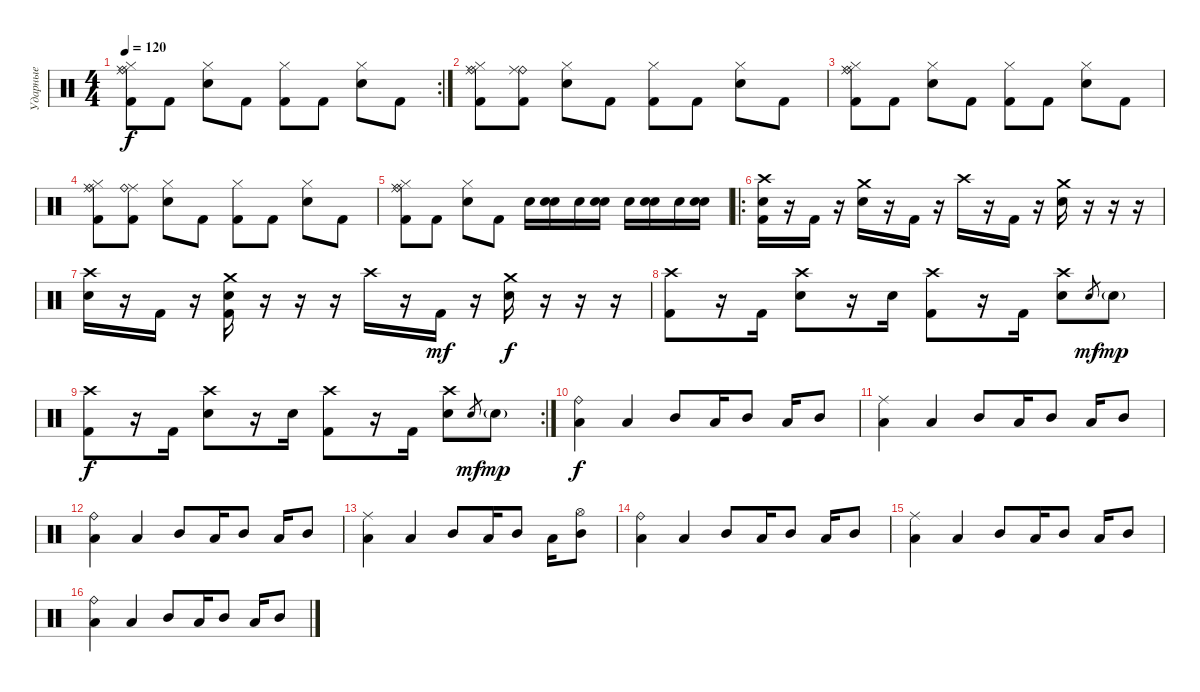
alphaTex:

\track ("Ударные" "Ударные") {instrument percussion}
\staff {score}
\articulation defaults
\rc 2
\ts (4 4)
\tempo 120
\clef neutral
\ks c
("Hi-Hat (closed)" "Ride (middle)" "Ride (bell)" "Kick (hit) 2").8{dy f} "Kick (hit) 2".8 ("Hi-Hat (closed)" "Electric Snare (hit)").8 "Kick (hit) 2".8 ("Hi-Hat (closed)" "Kick (hit) 2").8 "Kick (hit) 2".8 ("Hi-Hat (closed)" "Electric Snare (hit)").8 "Kick (hit) 2".8 |
("Hi-Hat (closed)" "Ride (middle)" "Ride (bell)" "Kick (hit) 2").8 ("Ride (bell)" "Ride (middle)" "Kick (hit) 2").8 ("Hi-Hat (closed)" "Electric Snare (hit)").8 "Kick (hit) 2".8 ("Hi-Hat (closed)" "Kick (hit) 2").8 "Kick (hit) 2".8 ("Hi-Hat (closed)" "Electric Snare (hit)").8 "Kick (hit) 2".8 |
("Hi-Hat (closed)" "Ride (middle)" "Ride (bell)" "Kick (hit) 2").8 "Kick (hit) 2".8 ("Hi-Hat (closed)" "Electric Snare (hit)").8 "Kick (hit) 2".8 ("Hi-Hat (closed)" "Kick (hit) 2").8 "Kick (hit) 2".8 ("Hi-Hat (closed)" "Electric Snare (hit)").8 "Kick (hit) 2".8 |
("Hi-Hat (closed)" "Ride (middle)" "Ride (bell)" "Kick (hit) 2").8 ("Ride (middle)" "Ride (bell)" "Kick (hit) 2").8 ("Hi-Hat (closed)" "Electric Snare (hit)").8 "Kick (hit) 2".8 ("Hi-Hat (closed)" "Kick (hit) 2").8 "Kick (hit) 2".8 ("Hi-Hat (closed)" "Electric Snare (hit)").8 "Kick (hit) 2".8 |
("Hi-Hat (closed)" "Ride (middle)" "Ride (bell)" "Kick (hit) 2").8 "Kick (hit) 2".8 ("Hi-Hat (closed)" "Electric Snare (hit)").8 "Kick (hit) 2".8 "Snare (hit) 2".16{volume 13} ("Electric Snare (hit)" "Snare (hit) 2").16 "Snare (hit) 2".16 ("Electric Snare (hit)" "Snare (hit) 2").16 "Snare (hit) 2".16 ("Electric Snare (hit)" "Snare (hit) 2").16 "Snare (hit) 2".16 ("Electric Snare (hit)" "Snare (hit) 2").16 |
\ro
("Crash high (hit)" "Electric Snare (hit)" "Kick (hit) 2").16{volume 13} r.16 "Kick (hit) 2".16 r.16 ("Crash medium (hit)" "Electric Snare (hit)").16 r.16 "Kick (hit) 2".16 r.16 "Crash high (hit)".16 r.16 "Kick (hit) 2".16 r.16 ("Crash medium (hit)" "Snare (hit) 2").16 r.16 r.16 r.16 |
("Crash high (hit)" "Electric Snare (hit)").16 r.16 "Kick (hit) 2".16 r.16 ("Crash medium (hit)" "Electric Snare (hit)" "Kick (hit) 2").16 r.16 r.16 r.16 "Crash high (hit)".16 r.16 "Kick (hit) 2".16{dy mf} r.16 ("Crash medium (hit)" "Snare (hit) 2").16{dy f} r.16 r.16 r.16 |
("Crash high (hit)" "Kick (hit) 2").8 r.16 "Kick (hit) 2".16 ("Crash high (hit)" "Electric Snare (hit)").8 r.16 "Electric Snare (hit)".16 ("Crash high (hit)" "Kick (hit) 2").8 r.16 "Kick (hit) 2".16 ("Crash high (hit)" "Electric Snare (hit)").8 "Electric Snare (hit)".8{gr dy mf} "Electric Snare (hit)"{g}.8{dy mp} |
\rc 2
("Crash high (hit)" "Kick (hit) 2").8{dy f} r.16 "Kick (hit) 2".16 ("Crash high (hit)" "Electric Snare (hit)").8 r.16 "Electric Snare (hit)".16 ("Crash high (hit)" "Kick (hit) 2").8 r.16 "Kick (hit) 2".16 ("Crash high (hit)" "Electric Snare (hit)").8 "Electric Snare (hit)".8{gr dy mf} "Electric Snare (hit)"{g}.8{dy mp} |
("Ride (bell)" "Low Tom (hit)").4{dy f} "Low Tom (hit)".4 "Mid Tom (hit)".8 "Low Tom (hit)".16 "Mid Tom (hit)".8 "Low Tom (hit)".16 "Mid Tom (hit)".8 |
("Ride (middle)" "Low Tom (hit)").4 "Low Tom (hit)".4 "Mid Tom (hit)".8 "Low Tom (hit)".16 "Mid Tom (hit)".8 "Low Tom (hit)".16 "Mid Tom (hit)".8 |
("Ride (bell)" "Low Tom (hit)").4 "Low Tom (hit)".4 "Mid Tom (hit)".8 "Low Tom (hit)".16 "Mid Tom (hit)".8 "Low Tom (hit)".16 "Mid Tom (hit)".8 |
("Ride (middle)" "Low Tom (hit)").4 "Low Tom (hit)".4 "Mid Tom (hit)".8 "Low Tom (hit)".16 "Mid Tom (hit)".8 "Low Tom (hit)".16 ("Hi-Hat (open)" "Mid Tom (hit)").8 |
("Ride (bell)" "Low Tom (hit)").4 "Low Tom (hit)".4 "Mid Tom (hit)".8 "Low Tom (hit)".16 "Mid Tom (hit)".8 "Low Tom (hit)".16 "Mid Tom (hit)".8 |
("Ride (middle)" "Low Tom (hit)").4 "Low Tom (hit)".4 "Mid Tom (hit)".8 "Low Tom (hit)".16 "Mid Tom (hit)".8 "Low Tom (hit)".16 "Mid Tom (hit)".8 |
("Ride (bell)" "Low Tom (hit)").4 "Low Tom (hit)".4 "Mid Tom (hit)".8 "Low Tom (hit)".16 "Mid Tom (hit)".8 "Low Tom (hit)".16 "Mid Tom (hit)".8
